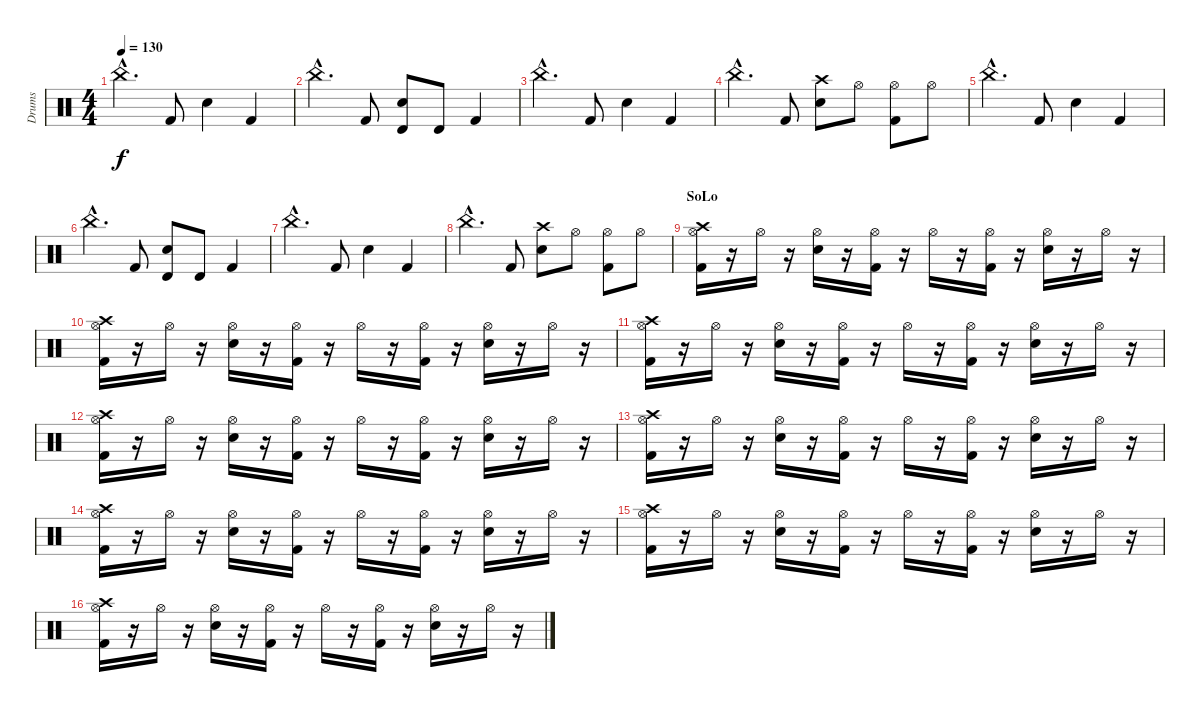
\track ("Drums" "Drums") {instrument percussion}
\staff {score}
\articulation defaults
\ts (4 4)
\tempo 130
\clef neutral
\ks c "China (hit)"{hac}.4{d dy f} "Kick (hit) 2".8 "Snare (hit) 2".4 "Kick (hit) 2".4
|
"China (hit)"{hac}.4{d} "Kick (hit) 2".8 ("Timbale high (hit)" "Snare (hit) 2").8 "Timbale high (hit)".8 "Kick (hit) 2".4 |
"China (hit)"{hac}.4{d} "Kick (hit) 2".8 "Snare (hit) 2".4 "Kick (hit) 2".4 |
"China (hit)"{hac}.4{d} "Kick (hit) 2".8 ("Crash high (hit)" "Snare (hit) 2").8 "Hi-Hat (open)".8 ("Hi-Hat (open)" "Kick (hit) 2").8 "Hi-Hat (open)".8 |
"China (hit)"{hac}.4{d} "Kick (hit) 2".8 "Snare (hit) 2".4 "Kick (hit) 2".4 |
"China (hit)"{hac}.4{d} "Kick (hit) 2".8 ("Timbale high (hit)" "Snare (hit) 2").8 "Timbale high (hit)".8 "Kick (hit) 2".4 |
"China (hit)"{hac}.4{d} "Kick (hit) 2".8 "Snare (hit) 2".4 "Kick (hit) 2".4 |
"China (hit)"{hac}.4{d} "Kick (hit) 2".8 ("Crash high (hit)" "Snare (hit) 2").8 "Hi-Hat (open)".8 ("Hi-Hat (open)" "Kick (hit) 2").8 "Hi-Hat (open)".8 |
\section ("" "SoLo")
("Crash high (hit)" "Hi-Hat (open)" "Kick (hit) 2").16 r.16 "Hi-Hat (open)".16 r.16 ("Hi-Hat (open)" "Snare (hit) 2").16 r.16 ("Hi-Hat (open)" "Kick (hit) 2").16 r.16 "Hi-Hat (open)".16 r.16 ("Hi-Hat (open)" "Kick (hit) 2").16 r.16 ("Hi-Hat (open)" "Snare (hit) 2").16 r.16 "Hi-Hat (open)".16 r.16 |
("Crash high (hit)" "Hi-Hat (open)" "Kick (hit) 2").16 r.16 "Hi-Hat (open)".16 r.16 ("Hi-Hat (open)" "Snare (hit) 2").16 r.16 ("Hi-Hat (open)" "Kick (hit) 2").16 r.16 "Hi-Hat (open)".16 r.16 ("Hi-Hat (open)" "Kick (hit) 2").16 r.16 ("Hi-Hat (open)" "Snare (hit) 2").16 r.16 "Hi-Hat (open)".16 r.16 |
("Crash high (hit)" "Hi-Hat (open)" "Kick (hit) 2").16 r.16 "Hi-Hat (open)".16 r.16 ("Hi-Hat (open)" "Snare (hit) 2").16 r.16 ("Hi-Hat (open)" "Kick (hit) 2").16 r.16 "Hi-Hat (open)".16 r.16 ("Hi-Hat (open)" "Kick (hit) 2").16 r.16 ("Hi-Hat (open)" "Snare (hit) 2").16 r.16 "Hi-Hat (open)".16 r.16 |
("Crash high (hit)" "Hi-Hat (open)" "Kick (hit) 2").16 r.16 "Hi-Hat (open)".16 r.16 ("Hi-Hat (open)" "Snare (hit) 2").16 r.16 ("Hi-Hat (open)" "Kick (hit) 2").16 r.16 "Hi-Hat (open)".16 r.16 ("Hi-Hat (open)" "Kick (hit) 2").16 r.16 ("Hi-Hat (open)" "Snare (hit) 2").16 r.16 "Hi-Hat (open)".16 r.16 |
("Crash high (hit)" "Hi-Hat (open)" "Kick (hit) 2").16 r.16 "Hi-Hat (open)".16 r.16 ("Hi-Hat (open)" "Snare (hit) 2").16 r.16 ("Hi-Hat (open)" "Kick (hit) 2").16 r.16 "Hi-Hat (open)".16 r.16 ("Hi-Hat (open)" "Kick (hit) 2").16 r.16 ("Hi-Hat (open)" "Snare (hit) 2").16 r.16 "Hi-Hat (open)".16 r.16 |
("Crash high (hit)" "Hi-Hat (open)" "Kick (hit) 2").16 r.16 "Hi-Hat (open)".16 r.16 ("Hi-Hat (open)" "Snare (hit) 2").16 r.16 ("Hi-Hat (open)" "Kick (hit) 2").16 r.16 "Hi-Hat (open)".16 r.16 ("Hi-Hat (open)" "Kick (hit) 2").16 r.16 ("Hi-Hat (open)" "Snare (hit) 2").16 r.16 "Hi-Hat (open)".16 r.16 |
("Crash high (hit)" "Hi-Hat (open)" "Kick (hit) 2").16 r.16 "Hi-Hat (open)".16 r.16 ("Hi-Hat (open)" "Snare (hit) 2").16 r.16 ("Hi-Hat (open)" "Kick (hit) 2").16 r.16 "Hi-Hat (open)".16 r.16 ("Hi-Hat (open)" "Kick (hit) 2").16 r.16 ("Hi-Hat (open)" "Snare (hit) 2").16 r.16 "Hi-Hat (open)".16 r.16 |
("Crash high (hit)" "Hi-Hat (open)" "Kick (hit) 2").16 r.16 "Hi-Hat (open)".16 r.16 ("Hi-Hat (open)" "Snare (hit) 2").16 r.16 ("Hi-Hat (open)" "Kick (hit) 2").16 r.16 "Hi-Hat (open)".16 r.16 ("Hi-Hat (open)" "Kick (hit) 2").16 r.16 ("Hi-Hat (open)" "Snare (hit) 2").16 r.16 "Hi-Hat (open)".16 r.16
